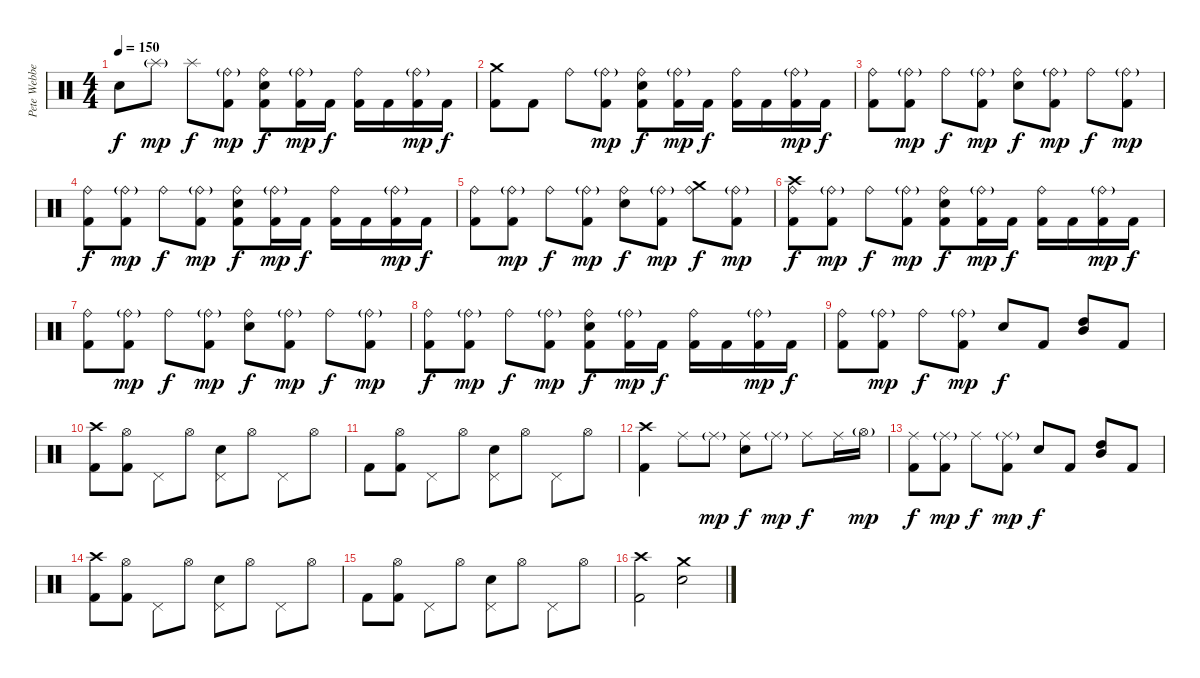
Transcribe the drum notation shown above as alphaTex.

\track ("Pete Webber" "Pete Webbe") {instrument percussion}
\staff {score}
\articulation defaults
\ts (4 4)
\tempo 150
\clef neutral
\ks c "Electric Snare (hit)".8{dy f} "Splash (hit)"{g}.8{dy mp} "Splash (hit)".8{dy f}
("Ride (bell)"{g} "Kick (hit) 2").8{dy mp} ("Ride (bell)" "Electric Snare (hit)" "Kick (hit) 2").8{dy f} ("Ride (bell)"{g} "Kick (hit) 2").16{dy mp} "Kick (hit) 2".16{dy f} ("Ride (bell)" "Kick (hit) 2").16 "Kick (hit) 2".16 ("Ride (bell)"{g} "Kick (hit) 2").16{dy mp} "Kick (hit) 2".16{dy f} |
("Kick (hit) 2" "Crash medium (hit)").8 "Kick (hit) 2".8 "Ride (bell)".8 ("Ride (bell)"{g} "Kick (hit) 2").8{dy mp} ("Ride (bell)" "Electric Snare (hit)" "Kick (hit) 2").8{dy f} ("Ride (bell)"{g} "Kick (hit) 2").16{dy mp} "Kick (hit) 2".16{dy f} ("Ride (bell)" "Kick (hit) 2").16 "Kick (hit) 2".16 ("Ride (bell)"{g} "Kick (hit) 2").16{dy mp} "Kick (hit) 2".16{dy f} |
("Ride (bell)" "Kick (hit) 2").8 ("Ride (bell)"{g} "Kick (hit) 2").8{dy mp} "Ride (bell)".8{dy f} ("Ride (bell)"{g} "Kick (hit) 2").8{dy mp} ("Ride (bell)" "Electric Snare (hit)").8{dy f} ("Ride (bell)"{g} "Kick (hit) 2").8{dy mp} "Ride (bell)".8{dy f} ("Ride (bell)"{g} "Kick (hit) 2").8{dy mp} |
("Ride (bell)" "Kick (hit) 2").8{dy f} ("Ride (bell)"{g} "Kick (hit) 2").8{dy mp} "Ride (bell)".8{dy f} ("Ride (bell)"{g} "Kick (hit) 2").8{dy mp} ("Ride (bell)" "Electric Snare (hit)" "Kick (hit) 2").8{dy f} ("Ride (bell)"{g} "Kick (hit) 2").16{dy mp} "Kick (hit) 2".16{dy f} ("Ride (bell)" "Kick (hit) 2").16 "Kick (hit) 2".16 ("Ride (bell)"{g} "Kick (hit) 2").16{dy mp} "Kick (hit) 2".16{dy f} |
("Ride (bell)" "Kick (hit) 2").8 ("Ride (bell)"{g} "Kick (hit) 2").8{dy mp} "Ride (bell)".8{dy f} ("Ride (bell)"{g} "Kick (hit) 2").8{dy mp} ("Ride (bell)" "Electric Snare (hit)").8{dy f} ("Ride (bell)"{g} "Kick (hit) 2").8{dy mp} ("Ride (bell)" "Crash medium (hit)").8{dy f} ("Ride (bell)"{g} "Kick (hit) 2").8{dy mp} |
("Ride (bell)" "Kick (hit) 2" "Crash high (hit)").8{dy f} ("Ride (bell)"{g} "Kick (hit) 2").8{dy mp} "Ride (bell)".8{dy f} ("Ride (bell)"{g} "Kick (hit) 2").8{dy mp} ("Ride (bell)" "Electric Snare (hit)" "Kick (hit) 2").8{dy f} ("Ride (bell)"{g} "Kick (hit) 2").16{dy mp} "Kick (hit) 2".16{dy f} ("Ride (bell)" "Kick (hit) 2").16 "Kick (hit) 2".16 ("Ride (bell)"{g} "Kick (hit) 2").16{dy mp} "Kick (hit) 2".16{dy f} |
("Ride (bell)" "Kick (hit) 2").8 ("Ride (bell)"{g} "Kick (hit) 2").8{dy mp} "Ride (bell)".8{dy f} ("Ride (bell)"{g} "Kick (hit) 2").8{dy mp} ("Ride (bell)" "Electric Snare (hit)").8{dy f} ("Ride (bell)"{g} "Kick (hit) 2").8{dy mp} "Ride (bell)".8{dy f} ("Ride (bell)"{g} "Kick (hit) 2").8{dy mp} |
("Ride (bell)" "Kick (hit) 2").8{dy f} ("Ride (bell)"{g} "Kick (hit) 2").8{dy mp} "Ride (bell)".8{dy f} ("Ride (bell)"{g} "Kick (hit) 2").8{dy mp} ("Ride (bell)" "Electric Snare (hit)" "Kick (hit) 2").8{dy f} ("Ride (bell)"{g} "Kick (hit) 2").16{dy mp} "Kick (hit) 2".16{dy f} ("Ride (bell)" "Kick (hit) 2").16 "Kick (hit) 2".16 ("Ride (bell)"{g} "Kick (hit) 2").16{dy mp} "Kick (hit) 2".16{dy f} |
("Ride (bell)" "Kick (hit) 2").8 ("Ride (bell)"{g} "Kick (hit) 2").8{dy mp} "Ride (bell)".8{dy f} ("Ride (bell)"{g} "Kick (hit) 2").8{dy mp} "Electric Snare (hit)".8{dy f} "Kick (hit) 2".8 ("High Tom (hit)" "Mid Tom (hit)").8 "Kick (hit) 2".8 |
("Kick (hit) 2" "Crash high (hit)").8 ("Hi-Hat (open)" "Kick (hit) 2").8 "Pedal Hi-Hat (hit)".8 "Hi-Hat (open)".8 ("Pedal Hi-Hat (hit)" "Electric Snare (hit)").8 "Hi-Hat (open)".8 "Pedal Hi-Hat (hit)".8 "Hi-Hat (open)".8 |
"Kick (hit) 2".8 ("Hi-Hat (open)" "Kick (hit) 2").8 "Pedal Hi-Hat (hit)".8 "Hi-Hat (open)".8 ("Pedal Hi-Hat (hit)" "Electric Snare (hit)").8 "Hi-Hat (open)".8 "Pedal Hi-Hat (hit)".8 "Hi-Hat (open)".8 |
("Kick (hit) 2" "Crash high (hit)").4 "Ride (middle)".8 "Ride (middle)"{g}.8{dy mp} ("Ride (middle)" "Electric Snare (hit)").8{dy f} "Ride (middle)"{g}.8{dy mp} "Ride (middle)".8{dy f} "Ride (middle)".16 "Hi-Hat (open)"{g}.16{dy mp} |
("Ride (middle)" "Kick (hit) 2").8{dy f} ("Ride (middle)"{g} "Kick (hit) 2").8{dy mp} "Ride (middle)".8{dy f} ("Ride (middle)"{g} "Kick (hit) 2").8{dy mp} "Electric Snare (hit)".8{dy f} "Kick (hit) 2".8 ("High Tom (hit)" "Mid Tom (hit)").8 "Kick (hit) 2".8 |
("Kick (hit) 2" "Crash high (hit)").8 ("Hi-Hat (open)" "Kick (hit) 2").8 "Pedal Hi-Hat (hit)".8 "Hi-Hat (open)".8 ("Pedal Hi-Hat (hit)" "Electric Snare (hit)").8 "Hi-Hat (open)".8 "Pedal Hi-Hat (hit)".8 "Hi-Hat (open)".8 |
"Kick (hit) 2".8 ("Hi-Hat (open)" "Kick (hit) 2").8 "Pedal Hi-Hat (hit)".8 "Hi-Hat (open)".8 ("Pedal Hi-Hat (hit)" "Electric Snare (hit)").8 "Hi-Hat (open)".8 "Pedal Hi-Hat (hit)".8 "Hi-Hat (open)".8 |
("Kick (hit) 2" "Crash high (hit)").2 ("Electric Snare (hit)" "Crash medium (hit)").2
